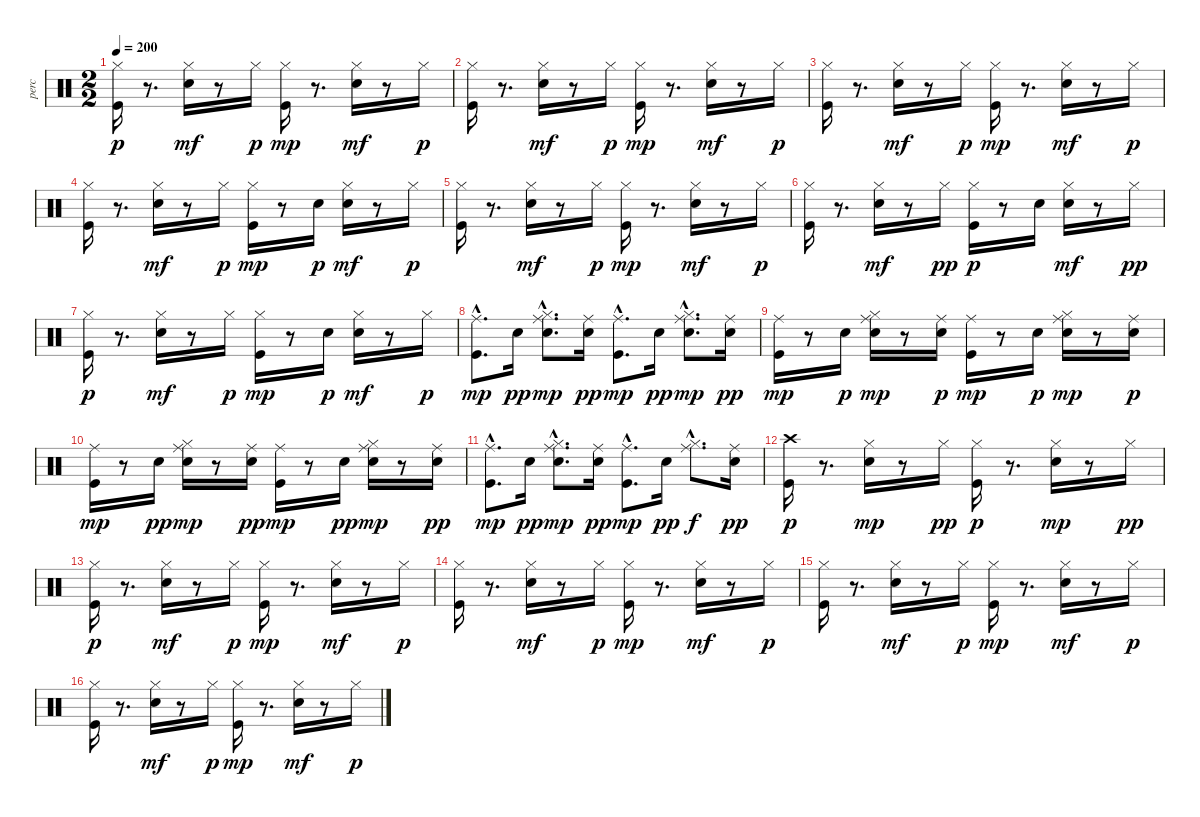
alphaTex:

\track ("perc" "perc") {instrument percussion}
\staff {score}
\articulation defaults
\ts (2 2)
\tempo 200
\clef neutral
\ks c
("Kick (hit)" "Hi-Hat (closed)").16{dy p} r.8{d} ("Snare (hit) 2" "Hi-Hat (closed)").16{dy mf} r.8 "Hi-Hat (closed)".16{dy p} ("Kick (hit)" "Hi-Hat (closed)").16{dy mp} r.8{d} ("Snare (hit) 2" "Hi-Hat (closed)").16{dy mf} r.8 "Hi-Hat (closed)".16{dy p} |
("Kick (hit)" "Hi-Hat (closed)").16 r.8{d} ("Snare (hit) 2" "Hi-Hat (closed)").16{dy mf} r.8 "Hi-Hat (closed)".16{dy p} ("Kick (hit)" "Hi-Hat (closed)").16{dy mp} r.8{d} ("Snare (hit) 2" "Hi-Hat (closed)").16{dy mf} r.8 "Hi-Hat (closed)".16{dy p} |
("Kick (hit)" "Hi-Hat (closed)").16 r.8{d} ("Snare (hit) 2" "Hi-Hat (closed)").16{dy mf} r.8 "Hi-Hat (closed)".16{dy p} ("Kick (hit)" "Hi-Hat (closed)").16{dy mp} r.8{d} ("Snare (hit) 2" "Hi-Hat (closed)").16{dy mf} r.8 "Hi-Hat (closed)".16{dy p} |
("Kick (hit)" "Hi-Hat (closed)").16 r.8{d} ("Snare (hit) 2" "Hi-Hat (closed)").16{dy mf} r.8 "Hi-Hat (closed)".16{dy p} ("Kick (hit)" "Hi-Hat (closed)").16{dy mp} r.8 "Snare (hit) 2".16{dy p} ("Snare (hit) 2" "Hi-Hat (closed)").16{dy mf} r.8 "Hi-Hat (closed)".16{dy p} |
("Kick (hit)" "Hi-Hat (closed)").16 r.8{d} ("Snare (hit) 2" "Hi-Hat (closed)").16{dy mf} r.8 "Hi-Hat (closed)".16{dy p} ("Kick (hit)" "Hi-Hat (closed)").16{dy mp} r.8{d} ("Snare (hit) 2" "Hi-Hat (closed)").16{dy mf} r.8 "Hi-Hat (closed)".16{dy p} |
("Kick (hit)" "Hi-Hat (closed)").16 r.8{d} ("Snare (hit) 2" "Hi-Hat (closed)").16{dy mf} r.8 "Hi-Hat (closed)".16{dy pp} ("Kick (hit)" "Hi-Hat (closed)").16{dy p} r.8 "Snare (hit) 2".16 ("Snare (hit) 2" "Hi-Hat (closed)").16{dy mf} r.8 "Hi-Hat (closed)".16{dy pp} |
("Kick (hit)" "Hi-Hat (closed)").16{dy p} r.8{d} ("Snare (hit) 2" "Hi-Hat (closed)").16{dy mf} r.8 "Hi-Hat (closed)".16{dy p} ("Kick (hit)" "Hi-Hat (closed)").16{dy mp} r.8 "Snare (hit) 2".16{dy p} ("Snare (hit) 2" "Hi-Hat (closed)").16{dy mf} r.8 "Hi-Hat (closed)".16{dy p} |
("Kick (hit)"{hac} "Ride (middle)"{hac}).8{d dy mp} "Snare (hit) 2".16{dy pp} ("Snare (hit) 2"{hac} "Hi-Hat (closed)"{hac} "Ride (middle)"{hac}).8{d dy mp} ("Snare (hit) 2" "Ride (middle)").16{dy pp} ("Kick (hit)"{hac} "Ride (middle)"{hac}).8{d dy mp} "Snare (hit) 2".16{dy pp} ("Snare (hit) 2"{hac} "Hi-Hat (closed)"{hac} "Ride (middle)"{hac}).8{d dy mp} ("Snare (hit) 2" "Ride (middle)").16{dy pp} |
("Kick (hit)" "Ride (middle)").16{dy mp} r.8 "Snare (hit) 2".16{dy p} ("Snare (hit) 2" "Hi-Hat (closed)" "Ride (middle)").16{dy mp} r.8 ("Snare (hit) 2" "Ride (middle)").16{dy p} ("Kick (hit)" "Ride (middle)").16{dy mp} r.8 "Snare (hit) 2".16{dy p} ("Snare (hit) 2" "Hi-Hat (closed)" "Ride (middle)").16{dy mp} r.8 ("Snare (hit) 2" "Ride (middle)").16{dy p} |
("Kick (hit)" "Ride (middle)").16{dy mp} r.8 "Snare (hit) 2".16{dy pp} ("Snare (hit) 2" "Hi-Hat (closed)" "Ride (middle)").16{dy mp} r.8 ("Snare (hit) 2" "Ride (middle)").16{dy pp} ("Kick (hit)" "Ride (middle)").16{dy mp} r.8 "Snare (hit) 2".16{dy pp} ("Snare (hit) 2" "Hi-Hat (closed)" "Ride (middle)").16{dy mp} r.8 ("Snare (hit) 2" "Ride (middle)").16{dy pp} |
("Kick (hit)"{hac} "Ride (middle)"{hac}).8{d dy mp} "Snare (hit) 2".16{dy pp} ("Snare (hit) 2"{hac} "Hi-Hat (closed)"{hac} "Ride (middle)"{hac}).8{d dy mp} ("Snare (hit) 2" "Ride (middle)").16{dy pp} ("Kick (hit)"{hac} "Ride (middle)"{hac}).8{d dy mp} "Snare (hit) 2".16{dy pp} ("Hi-Hat (closed)"{hac} "Ride (middle)"{hac}).8{d dy f} ("Snare (hit) 2" "Ride (middle)").16{dy pp} |
("Kick (hit)" "Crash high (hit)").16{dy p} r.8{d} ("Snare (hit) 2" "Hi-Hat (closed)").16{dy mp} r.8 "Hi-Hat (closed)".16{dy pp} ("Kick (hit)" "Hi-Hat (closed)").16{dy p} r.8{d} ("Snare (hit) 2" "Hi-Hat (closed)").16{dy mp} r.8 "Hi-Hat (closed)".16{dy pp} |
("Kick (hit)" "Hi-Hat (closed)").16{dy p} r.8{d} ("Snare (hit) 2" "Hi-Hat (closed)").16{dy mf} r.8 "Hi-Hat (closed)".16{dy p} ("Kick (hit)" "Hi-Hat (closed)").16{dy mp} r.8{d} ("Snare (hit) 2" "Hi-Hat (closed)").16{dy mf} r.8 "Hi-Hat (closed)".16{dy p} |
("Kick (hit)" "Hi-Hat (closed)").16 r.8{d} ("Snare (hit) 2" "Hi-Hat (closed)").16{dy mf} r.8 "Hi-Hat (closed)".16{dy p} ("Kick (hit)" "Hi-Hat (closed)").16{dy mp} r.8{d} ("Snare (hit) 2" "Hi-Hat (closed)").16{dy mf} r.8 "Hi-Hat (closed)".16{dy p} |
("Kick (hit)" "Hi-Hat (closed)").16 r.8{d} ("Snare (hit) 2" "Hi-Hat (closed)").16{dy mf} r.8 "Hi-Hat (closed)".16{dy p} ("Kick (hit)" "Hi-Hat (closed)").16{dy mp} r.8{d} ("Snare (hit) 2" "Hi-Hat (closed)").16{dy mf} r.8 "Hi-Hat (closed)".16{dy p} |
("Kick (hit)" "Hi-Hat (closed)").16 r.8{d} ("Snare (hit) 2" "Hi-Hat (closed)").16{dy mf} r.8 "Hi-Hat (closed)".16{dy p} ("Kick (hit)" "Hi-Hat (closed)").16{dy mp} r.8{d} ("Snare (hit) 2" "Hi-Hat (closed)").16{dy mf} r.8 "Hi-Hat (closed)".16{dy p}
